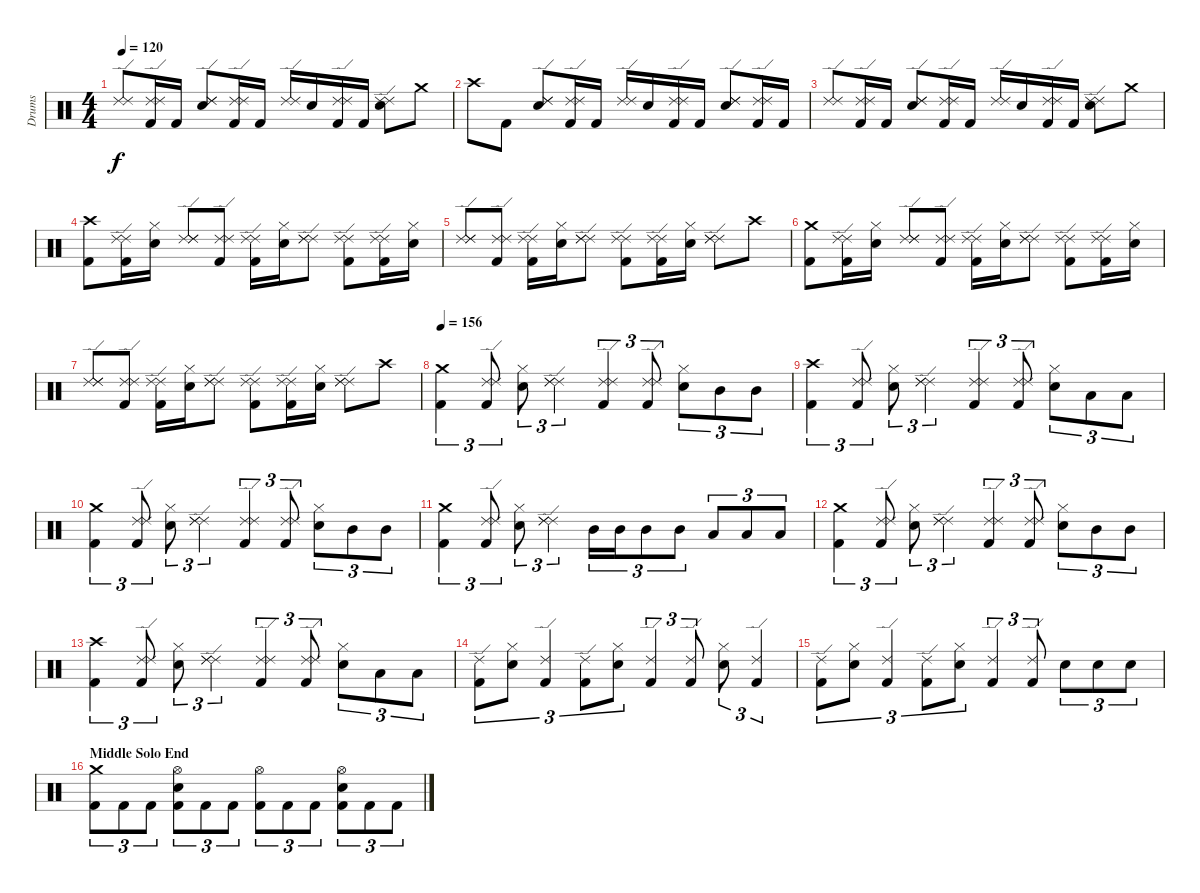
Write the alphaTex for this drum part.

\track ("Drums" "Drums") {instrument percussion}
\staff {score}
\articulation defaults
\ts (4 4)
\tempo 120
\clef neutral
\ks c
("Ride (edge) 2" "Ride (edge) 2").8{dy f} ("Ride (edge) 2" "Ride (edge) 2" "Kick (hit) 2").16 "Kick (hit) 2".16 ("Ride (edge) 2" "Ride (edge) 2" "Electric Snare (hit)").8 ("Ride (edge) 2" "Ride (edge) 2" "Kick (hit) 2").16 "Kick (hit) 2".16 ("Ride (edge) 2" "Ride (edge) 2").16 "Electric Snare (hit)".16 ("Ride (edge) 2" "Ride (edge) 2" "Kick (hit) 2").16 "Kick (hit) 2".16 ("Ride (edge) 2" "Ride (edge) 2" "Electric Snare (hit)").8 "Crash medium (hit)".8 |
"Crash high (hit)".8 "Kick (hit) 2".8 ("Ride (edge) 2" "Ride (edge) 2" "Electric Snare (hit)").8 ("Ride (edge) 2" "Ride (edge) 2" "Kick (hit) 2").16 "Kick (hit) 2".16 ("Ride (edge) 2" "Ride (edge) 2").16 "Electric Snare (hit)".16 ("Ride (edge) 2" "Ride (edge) 2" "Kick (hit) 2").16 "Kick (hit) 2".16 ("Ride (edge) 2" "Ride (edge) 2" "Electric Snare (hit)").8 ("Ride (edge) 2" "Ride (edge) 2" "Kick (hit) 2").16 "Kick (hit) 2".16 |
("Ride (edge) 2" "Ride (edge) 2").8 ("Ride (edge) 2" "Ride (edge) 2" "Kick (hit) 2").16 "Kick (hit) 2".16 ("Ride (edge) 2" "Ride (edge) 2" "Electric Snare (hit)").8 ("Ride (edge) 2" "Ride (edge) 2" "Kick (hit) 2").16 "Kick (hit) 2".16 ("Ride (edge) 2" "Ride (edge) 2").16 "Electric Snare (hit)".16 ("Ride (edge) 2" "Ride (edge) 2" "Kick (hit) 2").16 "Kick (hit) 2".16 ("Ride (edge) 2" "Ride (edge) 2" "Electric Snare (hit)").8 "Crash medium (hit)".8 |
("Crash high (hit)" "Kick (hit) 2").8 ("Ride (edge) 2" "Ride (edge) 2" "Kick (hit) 2").16 ("Hi-Hat (closed)" "Electric Snare (hit)").16 ("Ride (edge) 2" "Ride (edge) 2" "Ride (edge) 2").8 ("Ride (edge) 2" "Ride (edge) 2" "Kick (hit) 2").8 ("Ride (edge) 2" "Ride (edge) 2" "Kick (hit) 2").16 ("Hi-Hat (closed)" "Electric Snare (hit)").16 ("Ride (edge) 2" "Ride (edge) 2" "Ride (edge) 2").8 ("Ride (edge) 2" "Ride (edge) 2" "Kick (hit) 2").8 ("Ride (edge) 2" "Ride (edge) 2" "Kick (hit) 2").16 ("Hi-Hat (closed)" "Electric Snare (hit)").16 |
("Ride (edge) 2" "Ride (edge) 2" "Ride (edge) 2").8 ("Ride (edge) 2" "Ride (edge) 2" "Kick (hit) 2").8 ("Ride (edge) 2" "Ride (edge) 2" "Kick (hit) 2").16 ("Hi-Hat (closed)" "Electric Snare (hit)").16 ("Ride (edge) 2" "Ride (edge) 2" "Ride (edge) 2").8 ("Ride (edge) 2" "Ride (edge) 2" "Kick (hit) 2").8 ("Ride (edge) 2" "Ride (edge) 2" "Kick (hit) 2").16 ("Hi-Hat (closed)" "Electric Snare (hit)").16 ("Ride (edge) 2" "Ride (edge) 2" "Ride (edge) 2").8 "Crash high (hit)".8 |
("Crash medium (hit)" "Kick (hit) 2").8 ("Ride (edge) 2" "Ride (edge) 2" "Kick (hit) 2").16 ("Hi-Hat (closed)" "Electric Snare (hit)").16 ("Ride (edge) 2" "Ride (edge) 2" "Ride (edge) 2").8 ("Ride (edge) 2" "Ride (edge) 2" "Kick (hit) 2").8 ("Ride (edge) 2" "Ride (edge) 2" "Kick (hit) 2").16 ("Hi-Hat (closed)" "Electric Snare (hit)").16 ("Ride (edge) 2" "Ride (edge) 2" "Ride (edge) 2").8 ("Ride (edge) 2" "Ride (edge) 2" "Kick (hit) 2").8 ("Ride (edge) 2" "Ride (edge) 2" "Kick (hit) 2").16 ("Hi-Hat (closed)" "Electric Snare (hit)").16 |
("Ride (edge) 2" "Ride (edge) 2" "Ride (edge) 2").8 ("Ride (edge) 2" "Ride (edge) 2" "Kick (hit) 2").8 ("Ride (edge) 2" "Ride (edge) 2" "Kick (hit) 2").16 ("Hi-Hat (closed)" "Electric Snare (hit)").16 ("Ride (edge) 2" "Ride (edge) 2" "Ride (edge) 2").8 ("Ride (edge) 2" "Ride (edge) 2" "Kick (hit) 2").8 ("Ride (edge) 2" "Ride (edge) 2" "Kick (hit) 2").16 ("Hi-Hat (closed)" "Electric Snare (hit)").16 ("Ride (edge) 2" "Ride (edge) 2" "Ride (edge) 2").8 "Crash high (hit)".8 |
\tempo 156
("Crash medium (hit)" "Kick (hit) 2").4{tu (3 2)} ("Ride (edge) 2" "Ride (edge) 2" "Kick (hit) 2").8{tu (3 2)} ("Hi-Hat (closed)" "Electric Snare (hit)").8{tu (3 2)} ("Ride (edge) 2" "Ride (edge) 2" "Ride (edge) 2").4{tu (3 2)} ("Ride (edge) 2" "Ride (edge) 2" "Kick (hit) 2").4{tu (3 2)} ("Ride (edge) 2" "Ride (edge) 2" "Kick (hit) 2").8{tu (3 2)} ("Hi-Hat (closed)" "Electric Snare (hit)").8{tu (3 2)} "Mid Tom (hit)".8{tu (3 2)} "Mid Tom (hit)".8{tu (3 2)} |
("Crash high (hit)" "Kick (hit) 2").4{tu (3 2)} ("Ride (edge) 2" "Ride (edge) 2" "Kick (hit) 2").8{tu (3 2)} ("Hi-Hat (closed)" "Electric Snare (hit)").8{tu (3 2)} ("Ride (edge) 2" "Ride (edge) 2" "Ride (edge) 2").4{tu (3 2)} ("Ride (edge) 2" "Ride (edge) 2" "Kick (hit) 2").4{tu (3 2)} ("Ride (edge) 2" "Ride (edge) 2" "Kick (hit) 2").8{tu (3 2)} ("Hi-Hat (closed)" "Electric Snare (hit)").8{tu (3 2)} "Low Tom (hit)".8{tu (3 2)} "Low Tom (hit)".8{tu (3 2)} |
("Crash medium (hit)" "Kick (hit) 2").4{tu (3 2)} ("Ride (edge) 2" "Ride (edge) 2" "Kick (hit) 2").8{tu (3 2)} ("Hi-Hat (closed)" "Electric Snare (hit)").8{tu (3 2)} ("Ride (edge) 2" "Ride (edge) 2" "Ride (edge) 2").4{tu (3 2)} ("Ride (edge) 2" "Ride (edge) 2" "Kick (hit) 2").4{tu (3 2)} ("Ride (edge) 2" "Ride (edge) 2" "Kick (hit) 2").8{tu (3 2)} ("Hi-Hat (closed)" "Electric Snare (hit)").8{tu (3 2)} "Mid Tom (hit)".8{tu (3 2)} "Mid Tom (hit)".8{tu (3 2)} |
("Crash medium (hit)" "Kick (hit) 2").4{tu (3 2)} ("Ride (edge) 2" "Ride (edge) 2" "Kick (hit) 2").8{tu (3 2)} ("Hi-Hat (closed)" "Electric Snare (hit)").8{tu (3 2)} ("Ride (edge) 2" "Ride (edge) 2" "Ride (edge) 2").4{tu (3 2)} "Mid Tom (hit)".16{tu (3 2)} "Mid Tom (hit)".16{tu (3 2)} "Mid Tom (hit)".8{tu (3 2)} "Mid Tom (hit)".8{tu (3 2)} "Low Tom (hit)".8{tu (3 2)} "Low Tom (hit)".8{tu (3 2)} "Low Tom (hit)".8{tu (3 2)} |
("Crash medium (hit)" "Kick (hit) 2").4{tu (3 2)} ("Ride (edge) 2" "Ride (edge) 2" "Kick (hit) 2").8{tu (3 2)} ("Hi-Hat (closed)" "Electric Snare (hit)").8{tu (3 2)} ("Ride (edge) 2" "Ride (edge) 2" "Ride (edge) 2").4{tu (3 2)} ("Ride (edge) 2" "Ride (edge) 2" "Kick (hit) 2").4{tu (3 2)} ("Ride (edge) 2" "Ride (edge) 2" "Kick (hit) 2").8{tu (3 2)} ("Hi-Hat (closed)" "Electric Snare (hit)").8{tu (3 2)} "Mid Tom (hit)".8{tu (3 2)} "Mid Tom (hit)".8{tu (3 2)} |
("Crash high (hit)" "Kick (hit) 2").4{tu (3 2)} ("Ride (edge) 2" "Ride (edge) 2" "Kick (hit) 2").8{tu (3 2)} ("Hi-Hat (closed)" "Electric Snare (hit)").8{tu (3 2)} ("Ride (edge) 2" "Ride (edge) 2" "Ride (edge) 2").4{tu (3 2)} ("Ride (edge) 2" "Ride (edge) 2" "Kick (hit) 2").4{tu (3 2)} ("Ride (edge) 2" "Ride (edge) 2" "Kick (hit) 2").8{tu (3 2)} ("Hi-Hat (closed)" "Electric Snare (hit)").8{tu (3 2)} "Low Tom (hit)".8{tu (3 2)} "Low Tom (hit)".8{tu (3 2)} |
("Ride (edge) 2" "Kick (hit) 2").8{tu (3 2)} ("Hi-Hat (closed)" "Electric Snare (hit)").8{tu (3 2)} ("Ride (edge) 2" "Kick (hit) 2").4{tu (3 2)} ("Ride (edge) 2" "Kick (hit) 2").8{tu (3 2)} ("Hi-Hat (closed)" "Electric Snare (hit)").8{tu (3 2)} ("Ride (edge) 2" "Kick (hit) 2").4{tu (3 2)} ("Ride (edge) 2" "Kick (hit) 2").8{tu (3 2)} ("Hi-Hat (closed)" "Electric Snare (hit)").8{tu (3 2)} ("Ride (edge) 2" "Kick (hit) 2").4{tu (3 2)} |
("Ride (edge) 2" "Kick (hit) 2").8{tu (3 2)} ("Hi-Hat (closed)" "Electric Snare (hit)").8{tu (3 2)} ("Ride (edge) 2" "Kick (hit) 2").4{tu (3 2)} ("Ride (edge) 2" "Kick (hit) 2").8{tu (3 2)} ("Hi-Hat (closed)" "Electric Snare (hit)").8{tu (3 2)} ("Ride (edge) 2" "Kick (hit) 2").4{tu (3 2)} ("Ride (edge) 2" "Kick (hit) 2").8{tu (3 2)} "Electric Snare (hit)".8{tu (3 2)} "Electric Snare (hit)".8{tu (3 2)} "Electric Snare (hit)".8{tu (3 2)} |
\section ("" "Middle Solo End")
("Crash medium (hit)" "Kick (hit) 2").8{tu (3 2)} "Kick (hit) 2".8{tu (3 2)} "Kick (hit) 2".8{tu (3 2)} ("Hi-Hat (open)" "Electric Snare (hit)" "Kick (hit) 2").8{tu (3 2)} "Kick (hit) 2".8{tu (3 2)} "Kick (hit) 2".8{tu (3 2)} ("Hi-Hat (open)" "Kick (hit) 2").8{tu (3 2)} "Kick (hit) 2".8{tu (3 2)} "Kick (hit) 2".8{tu (3 2)} ("Hi-Hat (open)" "Electric Snare (hit)" "Kick (hit) 2").8{tu (3 2)} "Kick (hit) 2".8{tu (3 2)} "Kick (hit) 2".8{tu (3 2)}
